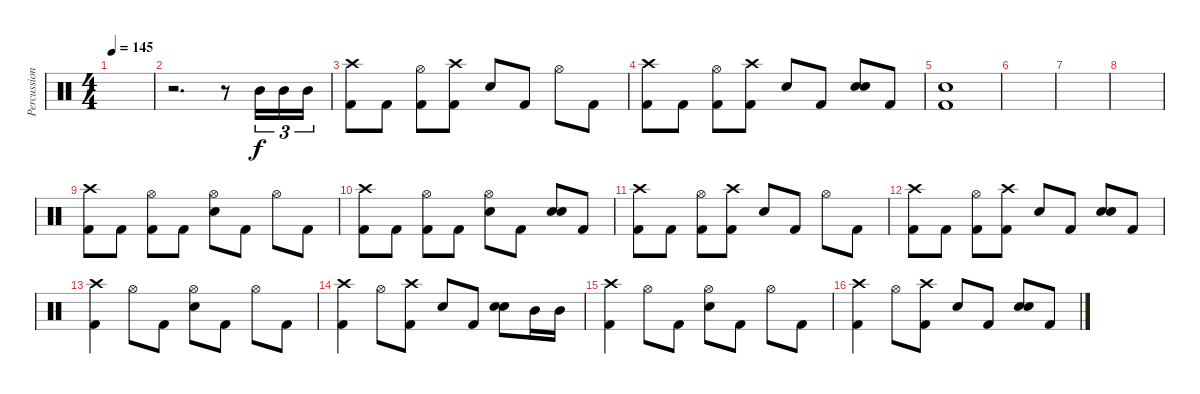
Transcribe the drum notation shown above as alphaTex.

\track ("Percussion" "Percussion") {instrument percussion}
\staff {score}
\articulation defaults
\ts (4 4)
\tempo 145
\clef neutral
\ks c
|
r.2{d} r.8 "Mid Tom (hit)".16{tu (3 2)} "Mid Tom (hit)".16{tu (3 2)} "Mid Tom (hit)".16{tu (3 2)} |
("Crash high (hit)" "Kick (hit) 2").8 "Kick (hit) 2".8 ("Hi-Hat (open)" "Kick (hit) 2").8 ("Crash high (hit)" "Kick (hit) 2").8 "Snare (hit) 2".8 "Kick (hit) 2".8 "Hi-Hat (open)".8 "Kick (hit) 2".8 |
("Crash high (hit)" "Kick (hit) 2").8 "Kick (hit) 2".8 ("Hi-Hat (open)" "Kick (hit) 2").8 ("Crash high (hit)" "Kick (hit) 2").8 "Snare (hit) 2".8 "Kick (hit) 2".8 ("Snare (hit) 2" "Snare (hit) 2").8{bd 240} "Kick (hit) 2".8 |
("Snare (hit) 2" "Kick (hit) 2").1 |
|
|
|
("Crash high (hit)" "Kick (hit) 2").8 "Kick (hit) 2".8 ("Hi-Hat (open)" "Kick (hit) 2").8 "Kick (hit) 2".8 ("Hi-Hat (open)" "Snare (hit) 2").8 "Kick (hit) 2".8 "Hi-Hat (open)".8 "Kick (hit) 2".8 |
("Crash high (hit)" "Kick (hit) 2").8 "Kick (hit) 2".8 ("Hi-Hat (open)" "Kick (hit) 2").8 "Kick (hit) 2".8 ("Hi-Hat (open)" "Snare (hit) 2").8 "Kick (hit) 2".8 ("Snare (hit) 2" "Snare (hit) 2").8{bd 240} "Kick (hit) 2".8 |
("Crash high (hit)" "Kick (hit) 2").8 "Kick (hit) 2".8 ("Hi-Hat (open)" "Kick (hit) 2").8 ("Crash high (hit)" "Kick (hit) 2").8 "Snare (hit) 2".8 "Kick (hit) 2".8 "Hi-Hat (open)".8 "Kick (hit) 2".8 |
("Crash high (hit)" "Kick (hit) 2").8 "Kick (hit) 2".8 ("Hi-Hat (open)" "Kick (hit) 2").8 ("Crash high (hit)" "Kick (hit) 2").8 "Snare (hit) 2".8 "Kick (hit) 2".8 ("Snare (hit) 2" "Snare (hit) 2").8{bd 240} "Kick (hit) 2".8 |
("Crash high (hit)" "Kick (hit) 2").4 "Hi-Hat (open)".8 "Kick (hit) 2".8 ("Hi-Hat (open)" "Snare (hit) 2").8 "Kick (hit) 2".8 "Hi-Hat (open)".8 "Kick (hit) 2".8 |
("Crash high (hit)" "Kick (hit) 2").4 "Hi-Hat (open)".8 ("Crash high (hit)" "Kick (hit) 2").8 "Snare (hit) 2".8 "Kick (hit) 2".8 ("Snare (hit) 2" "Snare (hit) 2").8{bd 240} "Mid Tom (hit)".16 "Mid Tom (hit)".16 |
("Crash high (hit)" "Kick (hit) 2").4 "Hi-Hat (open)".8 "Kick (hit) 2".8 ("Hi-Hat (open)" "Snare (hit) 2").8 "Kick (hit) 2".8 "Hi-Hat (open)".8 "Kick (hit) 2".8 |
("Crash high (hit)" "Kick (hit) 2").4 "Hi-Hat (open)".8 ("Crash high (hit)" "Kick (hit) 2").8 "Snare (hit) 2".8 "Kick (hit) 2".8 ("Snare (hit) 2" "Snare (hit) 2").8{bd 240} "Kick (hit) 2".8
